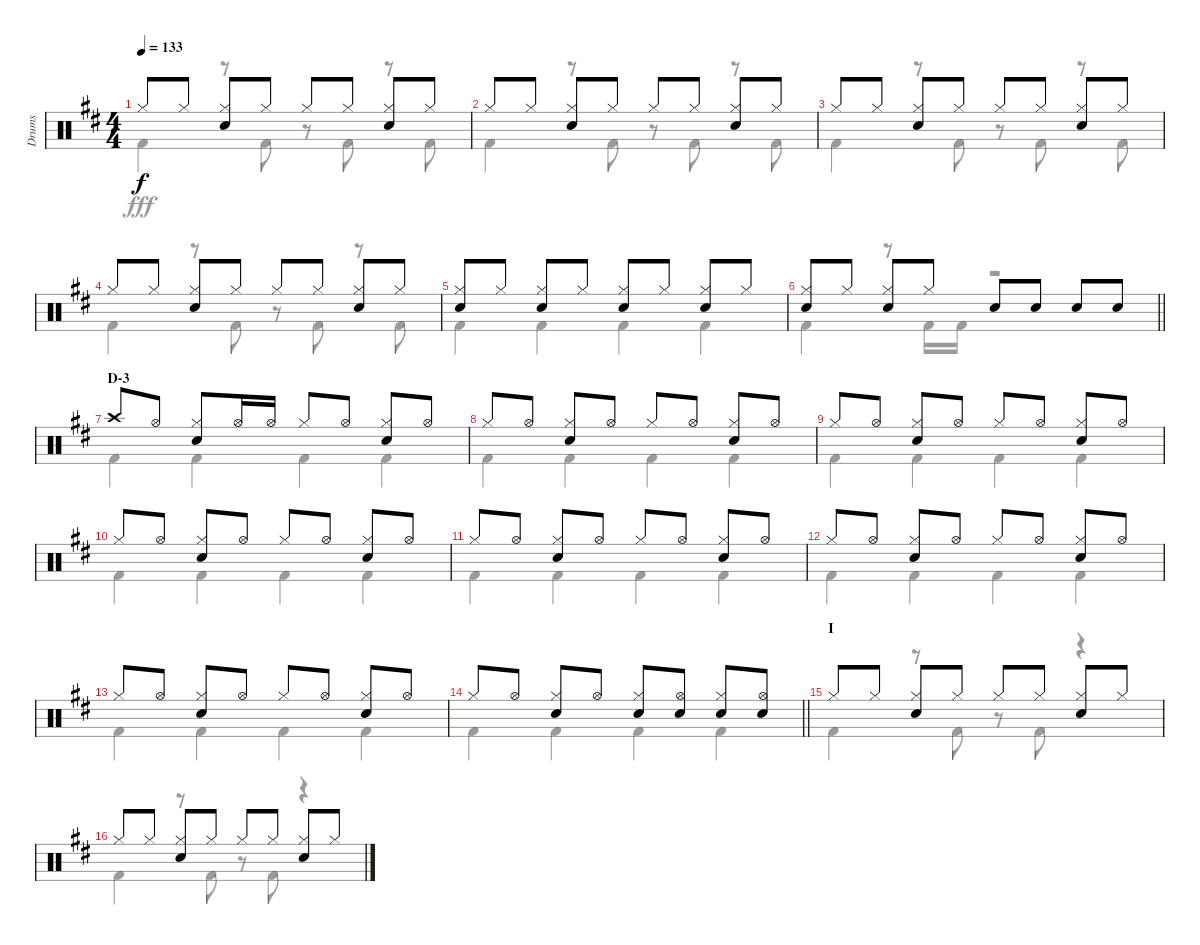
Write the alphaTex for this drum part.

\track ("Drums" "Drums") {instrument percussion}
\staff {score}
\articulation defaults
\voice
\ts (4 4)
\tempo 133
\clef neutral
\ks d "Hi-Hat (closed)".8{dy f} "Hi-Hat (closed)".8
("Hi-Hat (closed)" "Snare (hit) 2").8 "Hi-Hat (closed)".8 "Hi-Hat (closed)".8 "Hi-Hat (closed)".8 ("Hi-Hat (closed)" "Snare (hit) 2").8 "Hi-Hat (closed)".8 |
"Hi-Hat (closed)".8 "Hi-Hat (closed)".8 ("Hi-Hat (closed)" "Snare (hit) 2").8 "Hi-Hat (closed)".8 "Hi-Hat (closed)".8 "Hi-Hat (closed)".8 ("Hi-Hat (closed)" "Snare (hit) 2").8 "Hi-Hat (closed)".8 |
"Hi-Hat (closed)".8 "Hi-Hat (closed)".8 ("Hi-Hat (closed)" "Snare (hit) 2").8 "Hi-Hat (closed)".8 "Hi-Hat (closed)".8 "Hi-Hat (closed)".8 ("Hi-Hat (closed)" "Snare (hit) 2").8 "Hi-Hat (closed)".8 |
"Hi-Hat (closed)".8 "Hi-Hat (closed)".8 ("Hi-Hat (closed)" "Snare (hit) 2").8 "Hi-Hat (closed)".8 "Hi-Hat (closed)".8 "Hi-Hat (closed)".8 ("Hi-Hat (closed)" "Snare (hit) 2").8 "Hi-Hat (closed)".8 |
("Hi-Hat (closed)" "Snare (hit) 2").8 "Hi-Hat (closed)".8 ("Hi-Hat (closed)" "Snare (hit) 2").8 "Hi-Hat (closed)".8 ("Hi-Hat (closed)" "Snare (hit) 2").8 "Hi-Hat (closed)".8 ("Hi-Hat (closed)" "Snare (hit) 2").8 "Hi-Hat (closed)".8 |
\barLineRight lightlight
("Hi-Hat (closed)" "Snare (hit) 2").8 "Hi-Hat (closed)".8 ("Hi-Hat (closed)" "Snare (hit) 2").8 "Hi-Hat (closed)".8 "Snare (hit) 2".8 "Snare (hit) 2".8 "Snare (hit) 2".8 "Snare (hit) 2".8 |
\section ("" "D-3")
"Crash high (hit)".8 "Hi-Hat (open)".8 ("Hi-Hat (closed)" "Snare (hit) 2").8 "Hi-Hat (open)".16 "Hi-Hat (open)".16 "Hi-Hat (closed)".8 "Hi-Hat (open)".8 ("Hi-Hat (closed)" "Snare (hit) 2").8 "Hi-Hat (open)".8 |
"Hi-Hat (closed)".8 "Hi-Hat (open)".8 ("Hi-Hat (closed)" "Snare (hit) 2").8 "Hi-Hat (open)".8 "Hi-Hat (closed)".8 "Hi-Hat (open)".8 ("Hi-Hat (closed)" "Snare (hit) 2").8 "Hi-Hat (open)".8 |
"Hi-Hat (closed)".8 "Hi-Hat (open)".8 ("Hi-Hat (closed)" "Snare (hit) 2").8 "Hi-Hat (open)".8 "Hi-Hat (closed)".8 "Hi-Hat (open)".8 ("Hi-Hat (closed)" "Snare (hit) 2").8 "Hi-Hat (open)".8 |
"Hi-Hat (closed)".8 "Hi-Hat (open)".8 ("Hi-Hat (closed)" "Snare (hit) 2").8 "Hi-Hat (open)".8 "Hi-Hat (closed)".8 "Hi-Hat (open)".8 ("Hi-Hat (closed)" "Snare (hit) 2").8 "Hi-Hat (open)".8 |
"Hi-Hat (closed)".8 "Hi-Hat (open)".8 ("Hi-Hat (closed)" "Snare (hit) 2").8 "Hi-Hat (open)".8 "Hi-Hat (closed)".8 "Hi-Hat (open)".8 ("Hi-Hat (closed)" "Snare (hit) 2").8 "Hi-Hat (open)".8 |
"Hi-Hat (closed)".8 "Hi-Hat (open)".8 ("Hi-Hat (closed)" "Snare (hit) 2").8 "Hi-Hat (open)".8 "Hi-Hat (closed)".8 "Hi-Hat (open)".8 ("Hi-Hat (closed)" "Snare (hit) 2").8 "Hi-Hat (open)".8 |
"Hi-Hat (closed)".8 "Hi-Hat (open)".8 ("Hi-Hat (closed)" "Snare (hit) 2").8 "Hi-Hat (open)".8 "Hi-Hat (closed)".8 "Hi-Hat (open)".8 ("Hi-Hat (closed)" "Snare (hit) 2").8 "Hi-Hat (open)".8 |
\barLineRight lightlight "Hi-Hat (closed)".8 "Hi-Hat (open)".8
("Hi-Hat (closed)" "Snare (hit) 2").8 "Hi-Hat (open)".8 ("Hi-Hat (closed)" "Snare (hit) 2").8 ("Hi-Hat (open)" "Snare (hit) 2").8 ("Hi-Hat (closed)" "Snare (hit) 2").8 ("Hi-Hat (open)" "Snare (hit) 2").8 |
\section ("" "I")
"Hi-Hat (closed)".8 "Hi-Hat (closed)".8 ("Hi-Hat (closed)" "Snare (hit) 2").8 "Hi-Hat (closed)".8 "Hi-Hat (closed)".8 "Hi-Hat (closed)".8 ("Hi-Hat (closed)" "Snare (hit) 2").8 "Hi-Hat (closed)".8 |
"Hi-Hat (closed)".8 "Hi-Hat (closed)".8 ("Hi-Hat (closed)" "Snare (hit) 2").8 "Hi-Hat (closed)".8 "Hi-Hat (closed)".8 "Hi-Hat (closed)".8 ("Hi-Hat (closed)" "Snare (hit) 2").8 "Hi-Hat (closed)".8
\voice
\clef neutral
\ottava regular
\simile none
\ks d "Kick (hit) 2".4{dy fff}
r.8 "Kick (hit) 2".8 r.8 "Kick (hit) 2".8 r.8 "Kick (hit) 2".8 |
"Kick (hit) 2".4 r.8 "Kick (hit) 2".8 r.8 "Kick (hit) 2".8 r.8 "Kick (hit) 2".8 |
"Kick (hit) 2".4 r.8 "Kick (hit) 2".8 r.8 "Kick (hit) 2".8 r.8 "Kick (hit) 2".8 |
"Kick (hit) 2".4 r.8 "Kick (hit) 2".8 r.8 "Kick (hit) 2".8 r.8 "Kick (hit) 2".8 |
"Kick (hit) 2".4 "Kick (hit) 2".4 "Kick (hit) 2".4 "Kick (hit) 2".4 |
\barLineRight lightlight "Kick (hit) 2".4
r.8 "Kick (hit) 2".16 "Kick (hit) 2".16 r.2 |
"Kick (hit) 2".4 "Kick (hit) 2".4 "Kick (hit) 2".4 "Kick (hit) 2".4 |
"Kick (hit) 2".4 "Kick (hit) 2".4 "Kick (hit) 2".4 "Kick (hit) 2".4 |
"Kick (hit) 2".4 "Kick (hit) 2".4 "Kick (hit) 2".4 "Kick (hit) 2".4 |
"Kick (hit) 2".4 "Kick (hit) 2".4 "Kick (hit) 2".4 "Kick (hit) 2".4 |
"Kick (hit) 2".4 "Kick (hit) 2".4 "Kick (hit) 2".4 "Kick (hit) 2".4 |
"Kick (hit) 2".4 "Kick (hit) 2".4 "Kick (hit) 2".4 "Kick (hit) 2".4 |
"Kick (hit) 2".4 "Kick (hit) 2".4 "Kick (hit) 2".4 "Kick (hit) 2".4 |
\barLineRight lightlight "Kick (hit) 2".4 "Kick (hit) 2".4 "Kick (hit) 2".4 "Kick (hit) 2".4
|
"Kick (hit) 2".4 r.8 "Kick (hit) 2".8 r.8 "Kick (hit) 2".8 r.4 |
"Kick (hit) 2".4 r.8 "Kick (hit) 2".8 r.8 "Kick (hit) 2".8 r.4
